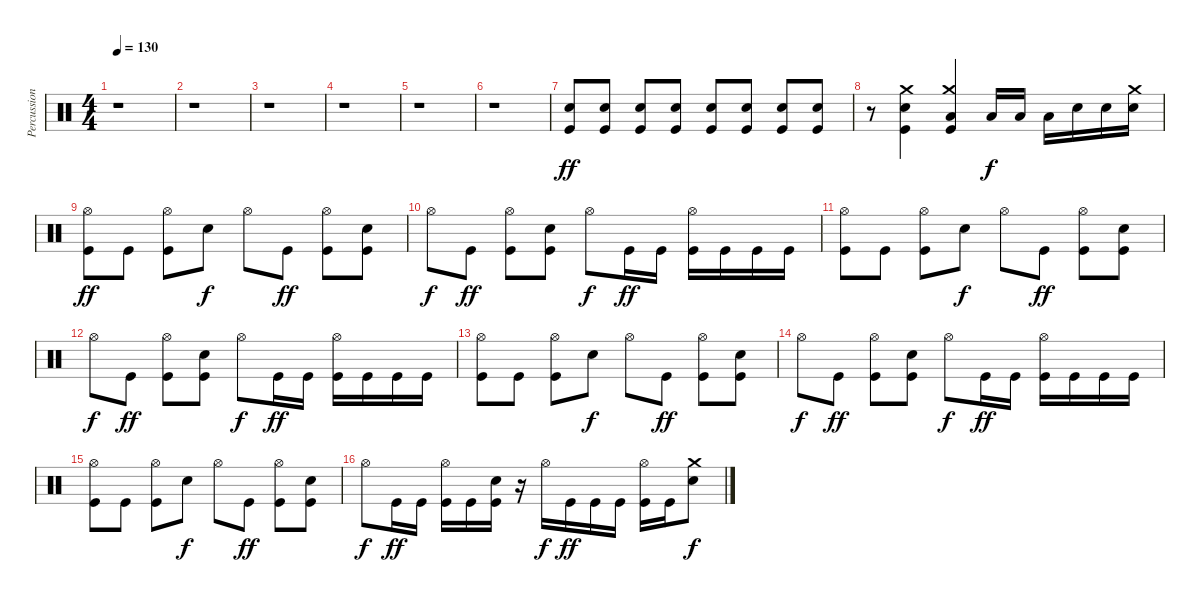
\track ("Percussion" "Percussion") {instrument percussion}
\staff {score}
\articulation defaults
\ts (4 4)
\tempo 130
\clef neutral
\ks c
r.1{dy ff} |
r.1 |
r.1 |
r.1 |
r.1 |
r.1 |
("Snare (hit) 2" "Kick (hit)").8 ("Snare (hit) 2" "Kick (hit)").8 ("Snare (hit) 2" "Kick (hit)").8 ("Snare (hit) 2" "Kick (hit)").8 ("Snare (hit) 2" "Kick (hit)").8 ("Snare (hit) 2" "Kick (hit)").8 ("Snare (hit) 2" "Kick (hit)").8 ("Snare (hit) 2" "Kick (hit)").8 |
r.8 ("Crash medium (hit)" "Snare (hit) 2" "Kick (hit)").4 ("Crash medium (hit)" "Low Tom (hit)" "Kick (hit)").4 "Low Tom (hit)".16{dy f} "Low Tom (hit)".16 "Low Tom (hit)".16 "Snare (hit) 2".16 "Snare (hit) 2".16 ("Crash medium (hit)" "Snare (hit) 2").16 |
("Hi-Hat (open)" "Kick (hit)").8{dy ff} "Kick (hit)".8 ("Hi-Hat (open)" "Kick (hit)").8 "Snare (hit) 2".8{dy f} "Hi-Hat (open)".8 "Kick (hit)".8{dy ff} ("Hi-Hat (open)" "Kick (hit)").8 ("Snare (hit) 2" "Kick (hit)").8 |
"Hi-Hat (open)".8{dy f} "Kick (hit)".8{dy ff} ("Hi-Hat (open)" "Kick (hit)").8 ("Snare (hit) 2" "Kick (hit)").8 "Hi-Hat (open)".8{dy f} "Kick (hit)".16{dy ff} "Kick (hit)".16 ("Hi-Hat (open)" "Kick (hit)").16 "Kick (hit)".16 "Kick (hit)".16 "Kick (hit)".16 |
("Hi-Hat (open)" "Kick (hit)").8 "Kick (hit)".8 ("Hi-Hat (open)" "Kick (hit)").8 "Snare (hit) 2".8{dy f} "Hi-Hat (open)".8 "Kick (hit)".8{dy ff} ("Hi-Hat (open)" "Kick (hit)").8 ("Snare (hit) 2" "Kick (hit)").8 |
"Hi-Hat (open)".8{dy f} "Kick (hit)".8{dy ff} ("Hi-Hat (open)" "Kick (hit)").8 ("Snare (hit) 2" "Kick (hit)").8 "Hi-Hat (open)".8{dy f} "Kick (hit)".16{dy ff} "Kick (hit)".16 ("Hi-Hat (open)" "Kick (hit)").16 "Kick (hit)".16 "Kick (hit)".16 "Kick (hit)".16 |
("Hi-Hat (open)" "Kick (hit)").8 "Kick (hit)".8 ("Hi-Hat (open)" "Kick (hit)").8 "Snare (hit) 2".8{dy f} "Hi-Hat (open)".8 "Kick (hit)".8{dy ff} ("Hi-Hat (open)" "Kick (hit)").8 ("Snare (hit) 2" "Kick (hit)").8 |
"Hi-Hat (open)".8{dy f} "Kick (hit)".8{dy ff} ("Hi-Hat (open)" "Kick (hit)").8 ("Snare (hit) 2" "Kick (hit)").8 "Hi-Hat (open)".8{dy f} "Kick (hit)".16{dy ff} "Kick (hit)".16 ("Hi-Hat (open)" "Kick (hit)").16 "Kick (hit)".16 "Kick (hit)".16 "Kick (hit)".16 |
("Hi-Hat (open)" "Kick (hit)").8 "Kick (hit)".8 ("Hi-Hat (open)" "Kick (hit)").8 "Snare (hit) 2".8{dy f} "Hi-Hat (open)".8 "Kick (hit)".8{dy ff} ("Hi-Hat (open)" "Kick (hit)").8 ("Snare (hit) 2" "Kick (hit)").8 |
"Hi-Hat (open)".8{dy f} "Kick (hit)".16{dy ff} "Kick (hit)".16 ("Hi-Hat (open)" "Kick (hit)").16 "Kick (hit)".16 ("Snare (hit) 2" "Kick (hit)").16 r.16 "Hi-Hat (open)".16{dy f} "Kick (hit)".16{dy ff} "Kick (hit)".16 "Kick (hit)".16 ("Hi-Hat (open)" "Kick (hit)").16 "Kick (hit)".16 ("Crash medium (hit)" "Snare (hit) 2").8{dy f}
